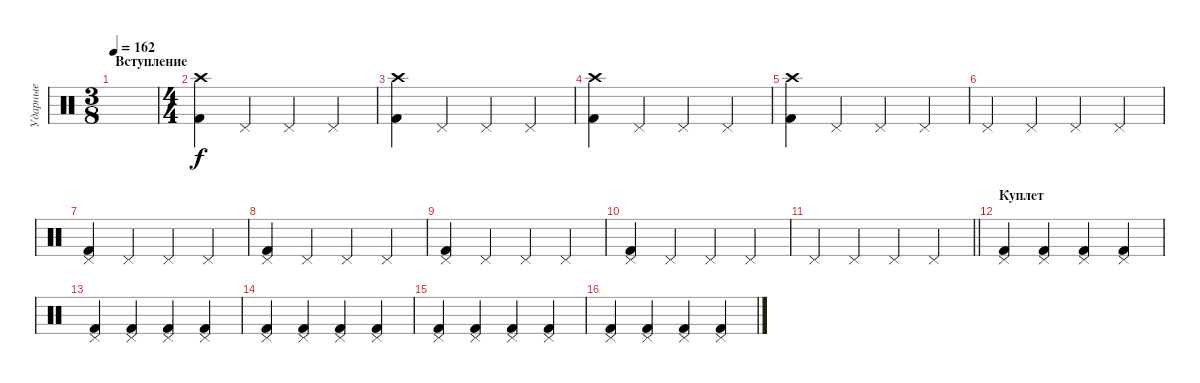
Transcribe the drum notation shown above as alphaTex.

\track ("Ударные" "Ударные") {instrument percussion}
\staff {score}
\articulation defaults
\ts (3 8)
\section ("" "Вступление")
\tempo 162
\clef neutral
\ks c
|
\ts (4 4)
("Crash high (hit)" "Kick (hit) 2").4 "Pedal Hi-Hat (hit)".4 "Pedal Hi-Hat (hit)".4 "Pedal Hi-Hat (hit)".4 |
("Crash high (hit)" "Kick (hit) 2").4 "Pedal Hi-Hat (hit)".4 "Pedal Hi-Hat (hit)".4 "Pedal Hi-Hat (hit)".4 |
("Crash high (hit)" "Kick (hit) 2").4 "Pedal Hi-Hat (hit)".4 "Pedal Hi-Hat (hit)".4 "Pedal Hi-Hat (hit)".4 |
("Crash high (hit)" "Kick (hit) 2").4 "Pedal Hi-Hat (hit)".4 "Pedal Hi-Hat (hit)".4 "Pedal Hi-Hat (hit)".4 |
"Pedal Hi-Hat (hit)".4 "Pedal Hi-Hat (hit)".4 "Pedal Hi-Hat (hit)".4 "Pedal Hi-Hat (hit)".4 |
("Kick (hit) 2" "Pedal Hi-Hat (hit)").4 "Pedal Hi-Hat (hit)".4 "Pedal Hi-Hat (hit)".4 "Pedal Hi-Hat (hit)".4 |
("Kick (hit) 2" "Pedal Hi-Hat (hit)").4 "Pedal Hi-Hat (hit)".4 "Pedal Hi-Hat (hit)".4 "Pedal Hi-Hat (hit)".4 |
("Kick (hit) 2" "Pedal Hi-Hat (hit)").4 "Pedal Hi-Hat (hit)".4 "Pedal Hi-Hat (hit)".4 "Pedal Hi-Hat (hit)".4 |
("Kick (hit) 2" "Pedal Hi-Hat (hit)").4 "Pedal Hi-Hat (hit)".4 "Pedal Hi-Hat (hit)".4 "Pedal Hi-Hat (hit)".4 |
\barLineRight lightlight "Pedal Hi-Hat (hit)".4 "Pedal Hi-Hat (hit)".4 "Pedal Hi-Hat (hit)".4 "Pedal Hi-Hat (hit)".4
|
\section ("" "Куплет")
("Kick (hit) 2" "Pedal Hi-Hat (hit)").4 ("Kick (hit) 2" "Pedal Hi-Hat (hit)").4 ("Kick (hit) 2" "Pedal Hi-Hat (hit)").4 ("Kick (hit) 2" "Pedal Hi-Hat (hit)").4 |
("Kick (hit) 2" "Pedal Hi-Hat (hit)").4 ("Kick (hit) 2" "Pedal Hi-Hat (hit)").4 ("Kick (hit) 2" "Pedal Hi-Hat (hit)").4 ("Kick (hit) 2" "Pedal Hi-Hat (hit)").4 |
("Kick (hit) 2" "Pedal Hi-Hat (hit)").4 ("Kick (hit) 2" "Pedal Hi-Hat (hit)").4 ("Kick (hit) 2" "Pedal Hi-Hat (hit)").4 ("Kick (hit) 2" "Pedal Hi-Hat (hit)").4 |
("Kick (hit) 2" "Pedal Hi-Hat (hit)").4 ("Kick (hit) 2" "Pedal Hi-Hat (hit)").4 ("Kick (hit) 2" "Pedal Hi-Hat (hit)").4 ("Kick (hit) 2" "Pedal Hi-Hat (hit)").4 |
("Kick (hit) 2" "Pedal Hi-Hat (hit)").4 ("Kick (hit) 2" "Pedal Hi-Hat (hit)").4 ("Kick (hit) 2" "Pedal Hi-Hat (hit)").4 ("Kick (hit) 2" "Pedal Hi-Hat (hit)").4
